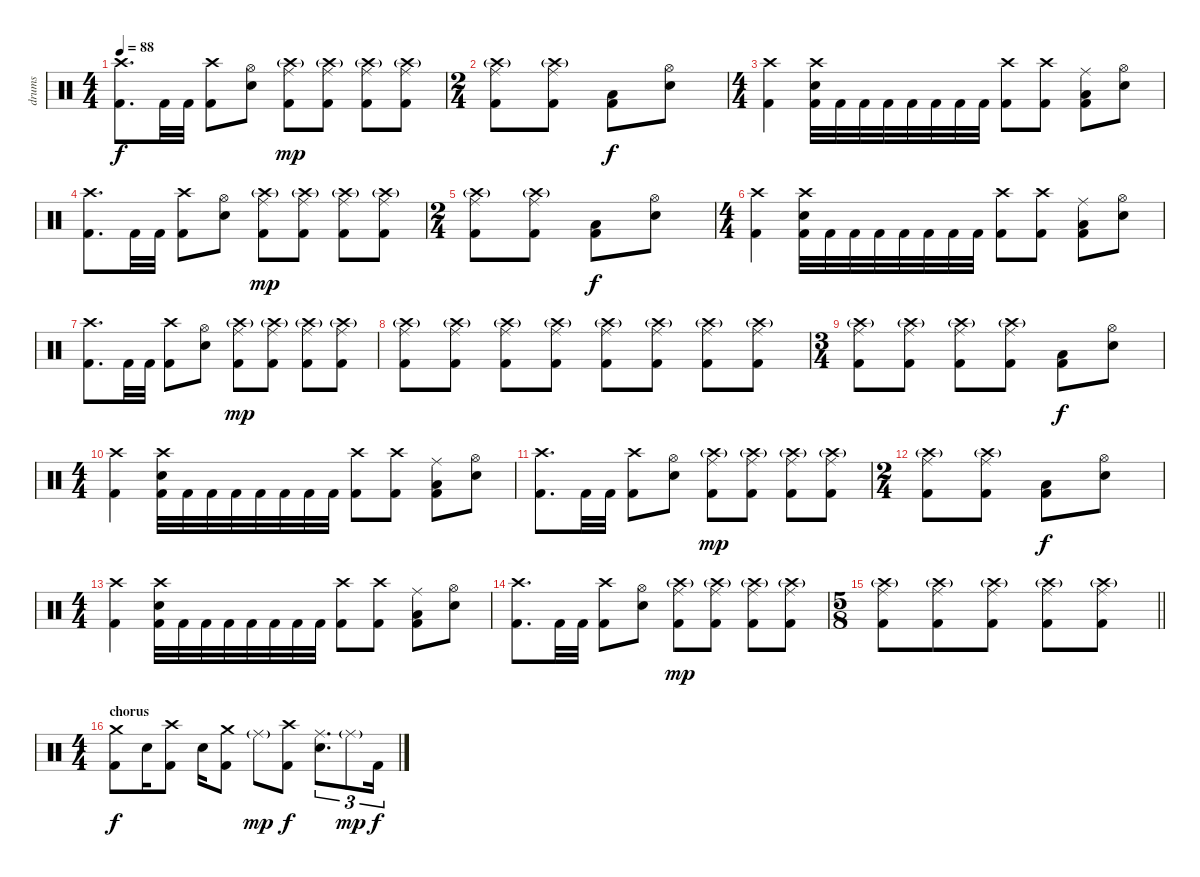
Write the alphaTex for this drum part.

\track ("drums" "drums") {instrument percussion}
\staff {score}
\articulation defaults
\ts (4 4)
\tempo 88
\clef neutral
\ks c
("Crash high (hit)" "Kick (hit) 2").8{d dy f} "Kick (hit) 2".32 "Kick (hit) 2".32 ("Crash high (hit)" "Kick (hit) 2").8 ("Hi-Hat (open)" "Snare (hit) 2").8 ("Ride (middle)" "Crash high (hit)"{g} "Kick (hit) 2").8{dy mp} ("Ride (middle)" "Crash high (hit)"{g} "Kick (hit) 2").8 ("Ride (middle)" "Crash high (hit)"{g} "Kick (hit) 2").8 ("Ride (middle)" "Crash high (hit)"{g} "Kick (hit) 2").8 |
\ts (2 4)
("Ride (middle)" "Crash high (hit)"{g} "Kick (hit) 2").8 ("Ride (middle)" "Crash high (hit)"{g} "Kick (hit) 2").8 ("Low Floor Tom (hit)" "Kick (hit) 2").8{dy f} ("Hi-Hat (open)" "Snare (hit) 2").8 |
\ts (4 4)
("Crash high (hit)" "Kick (hit) 2").4 ("Crash high (hit)" "Snare (hit) 2" "Kick (hit) 2").32 "Kick (hit) 2".32 "Kick (hit) 2".32 "Kick (hit) 2".32 "Kick (hit) 2".32 "Kick (hit) 2".32 "Kick (hit) 2".32 "Kick (hit) 2".32 ("Crash high (hit)" "Kick (hit) 2").8 ("Crash high (hit)" "Kick (hit) 2").8 ("Ride (middle)" "Low Floor Tom (hit)" "Kick (hit) 2").8 ("Hi-Hat (open)" "Snare (hit) 2").8 |
("Crash high (hit)" "Kick (hit) 2").8{d} "Kick (hit) 2".32 "Kick (hit) 2".32 ("Crash high (hit)" "Kick (hit) 2").8 ("Hi-Hat (open)" "Snare (hit) 2").8 ("Ride (middle)" "Crash high (hit)"{g} "Kick (hit) 2").8{dy mp} ("Ride (middle)" "Crash high (hit)"{g} "Kick (hit) 2").8 ("Ride (middle)" "Crash high (hit)"{g} "Kick (hit) 2").8 ("Ride (middle)" "Crash high (hit)"{g} "Kick (hit) 2").8 |
\ts (2 4)
("Ride (middle)" "Crash high (hit)"{g} "Kick (hit) 2").8 ("Ride (middle)" "Crash high (hit)"{g} "Kick (hit) 2").8 ("Low Floor Tom (hit)" "Kick (hit) 2").8{dy f} ("Hi-Hat (open)" "Snare (hit) 2").8 |
\ts (4 4)
("Crash high (hit)" "Kick (hit) 2").4 ("Crash high (hit)" "Snare (hit) 2" "Kick (hit) 2").32 "Kick (hit) 2".32 "Kick (hit) 2".32 "Kick (hit) 2".32 "Kick (hit) 2".32 "Kick (hit) 2".32 "Kick (hit) 2".32 "Kick (hit) 2".32 ("Crash high (hit)" "Kick (hit) 2").8 ("Crash high (hit)" "Kick (hit) 2").8 ("Ride (middle)" "Low Floor Tom (hit)" "Kick (hit) 2").8 ("Hi-Hat (open)" "Snare (hit) 2").8 |
("Crash high (hit)" "Kick (hit) 2").8{d} "Kick (hit) 2".32 "Kick (hit) 2".32 ("Crash high (hit)" "Kick (hit) 2").8 ("Hi-Hat (open)" "Snare (hit) 2").8 ("Ride (middle)" "Crash high (hit)"{g} "Kick (hit) 2").8{dy mp} ("Ride (middle)" "Crash high (hit)"{g} "Kick (hit) 2").8 ("Ride (middle)" "Crash high (hit)"{g} "Kick (hit) 2").8 ("Ride (middle)" "Crash high (hit)"{g} "Kick (hit) 2").8 |
("Ride (middle)" "Crash high (hit)"{g} "Kick (hit) 2").8 ("Ride (middle)" "Crash high (hit)"{g} "Kick (hit) 2").8 ("Ride (middle)" "Crash high (hit)"{g} "Kick (hit) 2").8 ("Ride (middle)" "Crash high (hit)"{g} "Kick (hit) 2").8 ("Ride (middle)" "Crash high (hit)"{g} "Kick (hit) 2").8 ("Ride (middle)" "Crash high (hit)"{g} "Kick (hit) 2").8 ("Ride (middle)" "Crash high (hit)"{g} "Kick (hit) 2").8 ("Ride (middle)" "Crash high (hit)"{g} "Kick (hit) 2").8 |
\ts (3 4)
("Ride (middle)" "Crash high (hit)"{g} "Kick (hit) 2").8 ("Ride (middle)" "Crash high (hit)"{g} "Kick (hit) 2").8 ("Ride (middle)" "Crash high (hit)"{g} "Kick (hit) 2").8 ("Ride (middle)" "Crash high (hit)"{g} "Kick (hit) 2").8 ("Low Floor Tom (hit)" "Kick (hit) 2").8{dy f} ("Hi-Hat (open)" "Snare (hit) 2").8 |
\ts (4 4)
("Crash high (hit)" "Kick (hit) 2").4 ("Crash high (hit)" "Snare (hit) 2" "Kick (hit) 2").32 "Kick (hit) 2".32 "Kick (hit) 2".32 "Kick (hit) 2".32 "Kick (hit) 2".32 "Kick (hit) 2".32 "Kick (hit) 2".32 "Kick (hit) 2".32 ("Crash high (hit)" "Kick (hit) 2").8 ("Crash high (hit)" "Kick (hit) 2").8 ("Ride (middle)" "Low Floor Tom (hit)" "Kick (hit) 2").8 ("Hi-Hat (open)" "Snare (hit) 2").8 |
("Crash high (hit)" "Kick (hit) 2").8{d} "Kick (hit) 2".32 "Kick (hit) 2".32 ("Crash high (hit)" "Kick (hit) 2").8 ("Hi-Hat (open)" "Snare (hit) 2").8 ("Ride (middle)" "Crash high (hit)"{g} "Kick (hit) 2").8{dy mp} ("Ride (middle)" "Crash high (hit)"{g} "Kick (hit) 2").8 ("Ride (middle)" "Crash high (hit)"{g} "Kick (hit) 2").8 ("Ride (middle)" "Crash high (hit)"{g} "Kick (hit) 2").8 |
\ts (2 4)
("Ride (middle)" "Crash high (hit)"{g} "Kick (hit) 2").8 ("Ride (middle)" "Crash high (hit)"{g} "Kick (hit) 2").8 ("Low Floor Tom (hit)" "Kick (hit) 2").8{dy f} ("Hi-Hat (open)" "Snare (hit) 2").8 |
\ts (4 4)
("Crash high (hit)" "Kick (hit) 2").4 ("Crash high (hit)" "Snare (hit) 2" "Kick (hit) 2").32 "Kick (hit) 2".32 "Kick (hit) 2".32 "Kick (hit) 2".32 "Kick (hit) 2".32 "Kick (hit) 2".32 "Kick (hit) 2".32 "Kick (hit) 2".32 ("Crash high (hit)" "Kick (hit) 2").8 ("Crash high (hit)" "Kick (hit) 2").8 ("Ride (middle)" "Low Floor Tom (hit)" "Kick (hit) 2").8 ("Hi-Hat (open)" "Snare (hit) 2").8 |
("Crash high (hit)" "Kick (hit) 2").8{d} "Kick (hit) 2".32 "Kick (hit) 2".32 ("Crash high (hit)" "Kick (hit) 2").8 ("Hi-Hat (open)" "Snare (hit) 2").8 ("Ride (middle)" "Crash high (hit)"{g} "Kick (hit) 2").8{dy mp} ("Ride (middle)" "Crash high (hit)"{g} "Kick (hit) 2").8 ("Ride (middle)" "Crash high (hit)"{g} "Kick (hit) 2").8 ("Ride (middle)" "Crash high (hit)"{g} "Kick (hit) 2").8 |
\ts (5 8)
\barLineRight lightlight
("Ride (middle)" "Crash high (hit)"{g} "Kick (hit) 2").8 ("Ride (middle)" "Crash high (hit)"{g} "Kick (hit) 2").8 ("Ride (middle)" "Crash high (hit)"{g} "Kick (hit) 2").8 ("Ride (middle)" "Crash high (hit)"{g} "Kick (hit) 2").8 ("Ride (middle)" "Crash high (hit)"{g} "Kick (hit) 2").8 |
\ts (4 4)
\section ("" "chorus")
("Crash medium (hit)" "Kick (hit) 2").8{dy f} "Snare (hit) 2".16 ("Crash high (hit)" "Kick (hit) 2").8 "Snare (hit) 2".16 ("Crash medium (hit)" "Kick (hit) 2").8 "Ride (middle)"{g}.8{dy mp} ("Crash high (hit)" "Kick (hit) 2").8{dy f} ("Ride (middle)" "Snare (hit) 2").8{d tu (3 2)} "Ride (middle)"{g}.8{tu (3 2) dy mp} "Kick (hit) 2".16{tu (3 2) dy f}
